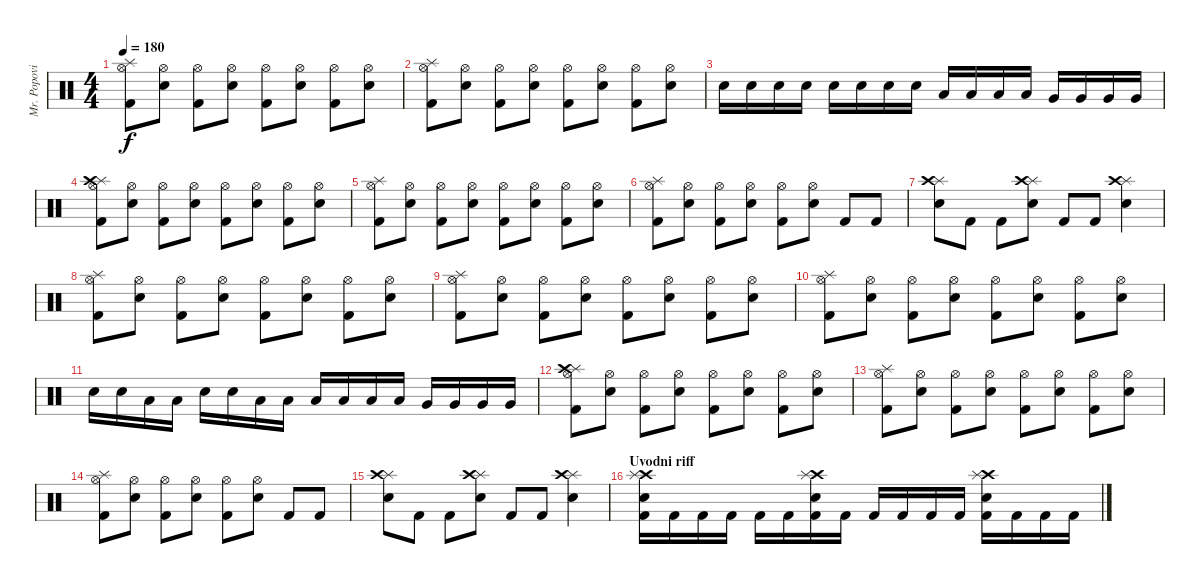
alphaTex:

\track ("Mr. Popovic" "Mr. Popovi") {instrument percussion}
\staff {score}
\articulation defaults
\ts (4 4)
\tempo 180
\clef neutral
\ks c
("Splash (hit)" "Hi-Hat (open)" "Kick (hit) 2").8{dy f} ("Hi-Hat (open)" "Electric Snare (hit)").8 ("Hi-Hat (open)" "Kick (hit) 2").8 ("Hi-Hat (open)" "Electric Snare (hit)").8 ("Hi-Hat (open)" "Kick (hit) 2").8 ("Hi-Hat (open)" "Electric Snare (hit)").8 ("Hi-Hat (open)" "Kick (hit) 2").8 ("Hi-Hat (open)" "Electric Snare (hit)").8 |
("Splash (hit)" "Hi-Hat (open)" "Kick (hit) 2").8 ("Hi-Hat (open)" "Electric Snare (hit)").8 ("Hi-Hat (open)" "Kick (hit) 2").8 ("Hi-Hat (open)" "Electric Snare (hit)").8 ("Hi-Hat (open)" "Kick (hit) 2").8 ("Hi-Hat (open)" "Electric Snare (hit)").8 ("Hi-Hat (open)" "Kick (hit) 2").8 ("Hi-Hat (open)" "Electric Snare (hit)").8 |
"Electric Snare (hit)".16 "Electric Snare (hit)".16 "Electric Snare (hit)".16 "Electric Snare (hit)".16 "Electric Snare (hit)".16 "Electric Snare (hit)".16 "Electric Snare (hit)".16 "Electric Snare (hit)".16 "Low Tom (hit)".16 "Low Tom (hit)".16 "Low Tom (hit)".16 "Low Tom (hit)".16 "Very Low Tom (hit)".16 "Very Low Tom (hit)".16 "Very Low Tom (hit)".16 "Very Low Tom (hit)".16 |
("Splash (hit)" "Crash high (hit)" "Hi-Hat (open)" "Kick (hit) 2").8 ("Hi-Hat (open)" "Electric Snare (hit)").8 ("Hi-Hat (open)" "Kick (hit) 2").8 ("Hi-Hat (open)" "Electric Snare (hit)").8 ("Hi-Hat (open)" "Kick (hit) 2").8 ("Hi-Hat (open)" "Electric Snare (hit)").8 ("Hi-Hat (open)" "Kick (hit) 2").8 ("Hi-Hat (open)" "Electric Snare (hit)").8 |
("Splash (hit)" "Hi-Hat (open)" "Kick (hit) 2").8 ("Hi-Hat (open)" "Electric Snare (hit)").8 ("Hi-Hat (open)" "Kick (hit) 2").8 ("Hi-Hat (open)" "Electric Snare (hit)").8 ("Hi-Hat (open)" "Kick (hit) 2").8 ("Hi-Hat (open)" "Electric Snare (hit)").8 ("Hi-Hat (open)" "Kick (hit) 2").8 ("Hi-Hat (open)" "Electric Snare (hit)").8 |
("Splash (hit)" "Hi-Hat (open)" "Kick (hit) 2").8 ("Hi-Hat (open)" "Electric Snare (hit)").8 ("Hi-Hat (open)" "Kick (hit) 2").8 ("Hi-Hat (open)" "Electric Snare (hit)").8 ("Hi-Hat (open)" "Kick (hit) 2").8 ("Hi-Hat (open)" "Electric Snare (hit)").8 "Kick (hit) 2".8 "Kick (hit) 2".8 |
("Splash (hit)" "Crash high (hit)" "Electric Snare (hit)").8 "Kick (hit) 2".8 "Kick (hit) 2".8 ("Splash (hit)" "Crash high (hit)" "Electric Snare (hit)").8 "Kick (hit) 2".8 "Kick (hit) 2".8 ("Splash (hit)" "Crash high (hit)" "Electric Snare (hit)").4 |
("Splash (hit)" "Hi-Hat (open)" "Kick (hit) 2").8 ("Hi-Hat (open)" "Electric Snare (hit)").8 ("Hi-Hat (open)" "Kick (hit) 2").8 ("Hi-Hat (open)" "Electric Snare (hit)").8 ("Hi-Hat (open)" "Kick (hit) 2").8 ("Hi-Hat (open)" "Electric Snare (hit)").8 ("Hi-Hat (open)" "Kick (hit) 2").8 ("Hi-Hat (open)" "Electric Snare (hit)").8 |
("Splash (hit)" "Hi-Hat (open)" "Kick (hit) 2").8 ("Hi-Hat (open)" "Electric Snare (hit)").8 ("Hi-Hat (open)" "Kick (hit) 2").8 ("Hi-Hat (open)" "Electric Snare (hit)").8 ("Hi-Hat (open)" "Kick (hit) 2").8 ("Hi-Hat (open)" "Electric Snare (hit)").8 ("Hi-Hat (open)" "Kick (hit) 2").8 ("Hi-Hat (open)" "Electric Snare (hit)").8 |
("Splash (hit)" "Hi-Hat (open)" "Kick (hit) 2").8 ("Hi-Hat (open)" "Electric Snare (hit)").8 ("Hi-Hat (open)" "Kick (hit) 2").8 ("Hi-Hat (open)" "Electric Snare (hit)").8 ("Hi-Hat (open)" "Kick (hit) 2").8 ("Hi-Hat (open)" "Electric Snare (hit)").8 ("Hi-Hat (open)" "Kick (hit) 2").8 ("Hi-Hat (open)" "Electric Snare (hit)").8 |
"Electric Snare (hit)".16 "Electric Snare (hit)".16 "Low Tom (hit)".16 "Low Tom (hit)".16 "Electric Snare (hit)".16 "Electric Snare (hit)".16 "Low Tom (hit)".16 "Low Tom (hit)".16 "Low Tom (hit)".16 "Low Tom (hit)".16 "Low Tom (hit)".16 "Low Tom (hit)".16 "Very Low Tom (hit)".16 "Very Low Tom (hit)".16 "Very Low Tom (hit)".16 "Very Low Tom (hit)".16 |
("Splash (hit)" "Crash high (hit)" "Hi-Hat (open)" "Kick (hit) 2").8 ("Hi-Hat (open)" "Electric Snare (hit)").8 ("Hi-Hat (open)" "Kick (hit) 2").8 ("Hi-Hat (open)" "Electric Snare (hit)").8 ("Hi-Hat (open)" "Kick (hit) 2").8 ("Hi-Hat (open)" "Electric Snare (hit)").8 ("Hi-Hat (open)" "Kick (hit) 2").8 ("Hi-Hat (open)" "Electric Snare (hit)").8 |
("Splash (hit)" "Hi-Hat (open)" "Kick (hit) 2").8 ("Hi-Hat (open)" "Electric Snare (hit)").8 ("Hi-Hat (open)" "Kick (hit) 2").8 ("Hi-Hat (open)" "Electric Snare (hit)").8 ("Hi-Hat (open)" "Kick (hit) 2").8 ("Hi-Hat (open)" "Electric Snare (hit)").8 ("Hi-Hat (open)" "Kick (hit) 2").8 ("Hi-Hat (open)" "Electric Snare (hit)").8 |
("Splash (hit)" "Hi-Hat (open)" "Kick (hit) 2").8 ("Hi-Hat (open)" "Electric Snare (hit)").8 ("Hi-Hat (open)" "Kick (hit) 2").8 ("Hi-Hat (open)" "Electric Snare (hit)").8 ("Hi-Hat (open)" "Kick (hit) 2").8 ("Hi-Hat (open)" "Electric Snare (hit)").8 "Kick (hit) 2".8 "Kick (hit) 2".8 |
("Splash (hit)" "Crash high (hit)" "Electric Snare (hit)").8 "Kick (hit) 2".8 "Kick (hit) 2".8 ("Splash (hit)" "Crash high (hit)" "Electric Snare (hit)").8 "Kick (hit) 2".8 "Kick (hit) 2".8 ("Splash (hit)" "Crash high (hit)" "Electric Snare (hit)").4 |
\section ("" "Uvodni riff")
("Crash high (hit)" "Splash (hit)" "Electric Snare (hit)" "Kick (hit) 2").16 "Kick (hit) 2".16 "Kick (hit) 2".16 "Kick (hit) 2".16 "Kick (hit) 2".16 "Kick (hit) 2".16 ("Crash high (hit)" "Splash (hit)" "Electric Snare (hit)" "Kick (hit) 2").16 "Kick (hit) 2".16 "Kick (hit) 2".16 "Kick (hit) 2".16 "Kick (hit) 2".16 "Kick (hit) 2".16 ("Crash high (hit)" "Splash (hit)" "Electric Snare (hit)" "Kick (hit) 2").16 "Kick (hit) 2".16 "Kick (hit) 2".16 "Kick (hit) 2".16
